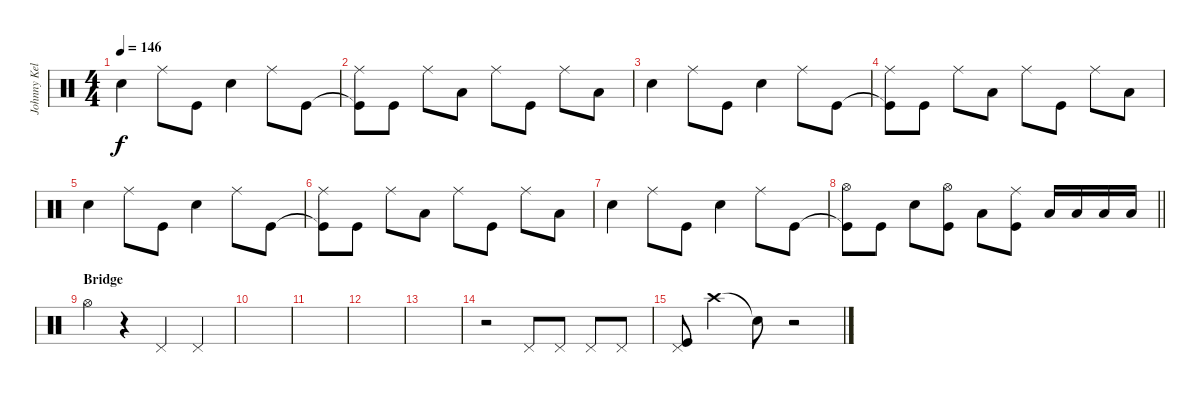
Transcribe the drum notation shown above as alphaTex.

\track ("Johnny Kelly" "Johnny Kel") {instrument percussion}
\staff {score}
\articulation defaults
\ts (4 4)
\tempo 146
\clef neutral
\ks c "Snare (hit) 2".4{dy f} "Ride (middle)".8 "Kick (hit)".8 "Snare (hit) 2".4 "Ride (middle)".8 "Kick (hit)".8
|
("Kick (hit)"{t} "Ride (middle)").8 "Kick (hit)".8 "Ride (middle)".8 "Low Tom (hit)".8 "Ride (middle)".8 "Kick (hit)".8 "Ride (middle)".8 "Low Tom (hit)".8 |
"Snare (hit) 2".4 "Ride (middle)".8 "Kick (hit)".8 "Snare (hit) 2".4 "Ride (middle)".8 "Kick (hit)".8 |
("Kick (hit)"{t} "Ride (middle)").8 "Kick (hit)".8 "Ride (middle)".8 "Low Tom (hit)".8 "Ride (middle)".8 "Kick (hit)".8 "Ride (middle)".8 "Low Tom (hit)".8 |
"Snare (hit) 2".4 "Ride (middle)".8 "Kick (hit)".8 "Snare (hit) 2".4 "Ride (middle)".8 "Kick (hit)".8 |
("Kick (hit)"{t} "Ride (middle)").8 "Kick (hit)".8 "Ride (middle)".8 "Low Tom (hit)".8 "Ride (middle)".8 "Kick (hit)".8 "Ride (middle)".8 "Low Tom (hit)".8 |
"Snare (hit) 2".4 "Ride (middle)".8 "Kick (hit)".8 "Snare (hit) 2".4 "Ride (middle)".8 "Kick (hit)".8 |
\barLineRight lightlight
("Kick (hit)"{t} "Hi-Hat (open)").8 "Kick (hit)".8 "Snare (hit) 2".8 ("Kick (hit)" "Hi-Hat (open)").8 "Low Tom (hit)".8 ("Kick (hit)" "Ride (middle)").8 "Low Tom (hit)".16 "Low Tom (hit)".16 "Low Tom (hit)".16 "Low Tom (hit)".16 |
\section ("" "Bridge")
"Hi-Hat (open)".4 r.4 "Pedal Hi-Hat (hit)".4 "Pedal Hi-Hat (hit)".4 |
|
|
|
|
r.2{volume 6} "Pedal Hi-Hat (hit)".8 "Pedal Hi-Hat (hit)".8 "Pedal Hi-Hat (hit)".8 "Pedal Hi-Hat (hit)".8 |
("Kick (hit)" "Pedal Hi-Hat (hit)").8{volume 12} "Crash high (hit)".4 "Snare (hit)"{t}.8 r.2
